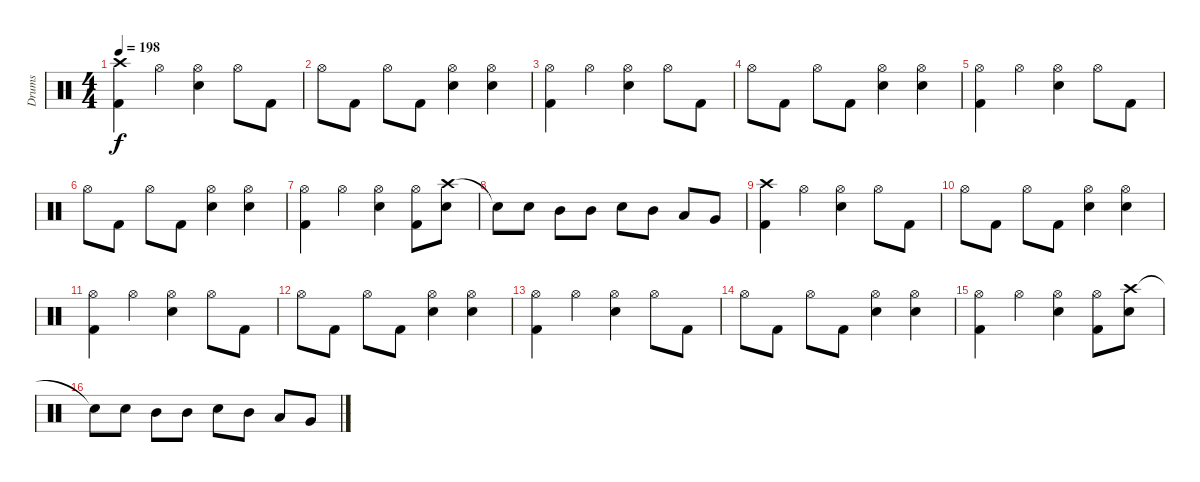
\track ("Drums" "Drums") {instrument percussion}
\staff {score}
\articulation defaults
\ts (4 4)
\tempo 198
\clef neutral
\ks c
("Crash high (hit)" "Kick (hit) 2").4{dy f} "Hi-Hat (open)".4 ("Hi-Hat (open)" "Snare (hit) 2").4 "Hi-Hat (open)".8 "Kick (hit) 2".8 |
"Hi-Hat (open)".8 "Kick (hit) 2".8 "Hi-Hat (open)".8 "Kick (hit) 2".8 ("Hi-Hat (open)" "Snare (hit) 2").4 ("Hi-Hat (open)" "Snare (hit) 2").4 |
("Hi-Hat (open)" "Kick (hit) 2").4 "Hi-Hat (open)".4 ("Hi-Hat (open)" "Snare (hit) 2").4 "Hi-Hat (open)".8 "Kick (hit) 2".8 |
"Hi-Hat (open)".8 "Kick (hit) 2".8 "Hi-Hat (open)".8 "Kick (hit) 2".8 ("Hi-Hat (open)" "Snare (hit) 2").4 ("Hi-Hat (open)" "Snare (hit) 2").4 |
("Hi-Hat (open)" "Kick (hit) 2").4 "Hi-Hat (open)".4 ("Hi-Hat (open)" "Snare (hit) 2").4 "Hi-Hat (open)".8 "Kick (hit) 2".8 |
"Hi-Hat (open)".8 "Kick (hit) 2".8 "Hi-Hat (open)".8 "Kick (hit) 2".8 ("Hi-Hat (open)" "Snare (hit) 2").4 ("Hi-Hat (open)" "Snare (hit) 2").4 |
("Hi-Hat (open)" "Kick (hit) 2").4 "Hi-Hat (open)".4 ("Hi-Hat (open)" "Snare (hit) 2").4 ("Hi-Hat (open)" "Kick (hit) 2").8 ("Crash high (hit)" "Snare (hit) 2").8 |
"Snare (hit)"{t}.8 "Snare (hit) 2".8 "Mid Tom (hit)".8 "Mid Tom (hit)".8 "Snare (hit) 2".8 "Mid Tom (hit)".8 "Low Tom (hit)".8 "Very Low Tom (hit)".8 |
("Crash high (hit)" "Kick (hit) 2").4 "Hi-Hat (open)".4 ("Hi-Hat (open)" "Snare (hit) 2").4 "Hi-Hat (open)".8 "Kick (hit) 2".8 |
"Hi-Hat (open)".8 "Kick (hit) 2".8 "Hi-Hat (open)".8 "Kick (hit) 2".8 ("Hi-Hat (open)" "Snare (hit) 2").4 ("Hi-Hat (open)" "Snare (hit) 2").4 |
("Hi-Hat (open)" "Kick (hit) 2").4 "Hi-Hat (open)".4 ("Hi-Hat (open)" "Snare (hit) 2").4 "Hi-Hat (open)".8 "Kick (hit) 2".8 |
"Hi-Hat (open)".8 "Kick (hit) 2".8 "Hi-Hat (open)".8 "Kick (hit) 2".8 ("Hi-Hat (open)" "Snare (hit) 2").4 ("Hi-Hat (open)" "Snare (hit) 2").4 |
("Hi-Hat (open)" "Kick (hit) 2").4 "Hi-Hat (open)".4 ("Hi-Hat (open)" "Snare (hit) 2").4 "Hi-Hat (open)".8 "Kick (hit) 2".8 |
"Hi-Hat (open)".8 "Kick (hit) 2".8 "Hi-Hat (open)".8 "Kick (hit) 2".8 ("Hi-Hat (open)" "Snare (hit) 2").4 ("Hi-Hat (open)" "Snare (hit) 2").4 |
("Hi-Hat (open)" "Kick (hit) 2").4 "Hi-Hat (open)".4 ("Hi-Hat (open)" "Snare (hit) 2").4 ("Hi-Hat (open)" "Kick (hit) 2").8 ("Crash high (hit)" "Snare (hit) 2").8 |
"Snare (hit)"{t}.8 "Snare (hit) 2".8 "Mid Tom (hit)".8 "Mid Tom (hit)".8 "Snare (hit) 2".8 "Mid Tom (hit)".8 "Low Tom (hit)".8 "Very Low Tom (hit)".8
